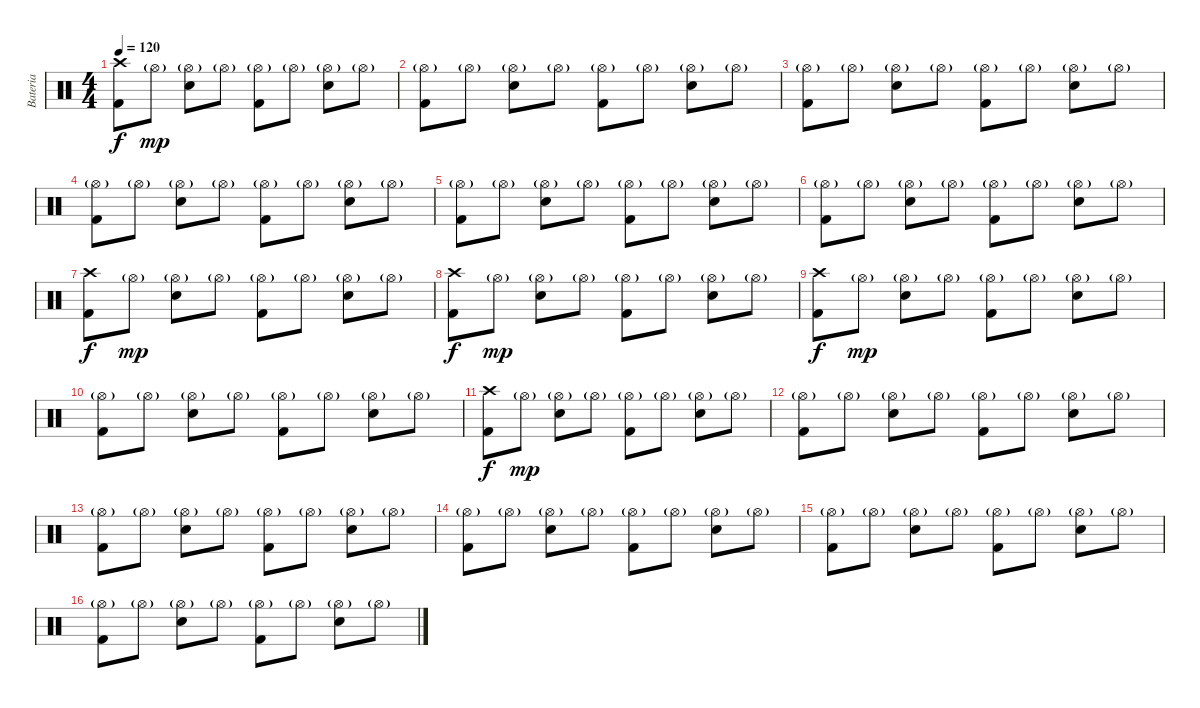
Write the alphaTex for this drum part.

\track ("Bateria" "Bateria") {instrument percussion}
\staff {score}
\articulation defaults
\ts (4 4)
\tempo 120
\clef neutral
\ks c
("Crash high (hit)" "Kick (hit) 2").8{dy f} "Hi-Hat (open)"{g}.8{dy mp} ("Hi-Hat (open)"{g} "Snare (hit) 2").8 "Hi-Hat (open)"{g}.8 ("Hi-Hat (open)"{g} "Kick (hit) 2").8 "Hi-Hat (open)"{g}.8 ("Hi-Hat (open)"{g} "Snare (hit) 2").8 "Hi-Hat (open)"{g}.8 |
("Hi-Hat (open)"{g} "Kick (hit) 2").8 "Hi-Hat (open)"{g}.8 ("Hi-Hat (open)"{g} "Snare (hit) 2").8 "Hi-Hat (open)"{g}.8 ("Hi-Hat (open)"{g} "Kick (hit) 2").8 "Hi-Hat (open)"{g}.8 ("Hi-Hat (open)"{g} "Snare (hit) 2").8 "Hi-Hat (open)"{g}.8 |
("Hi-Hat (open)"{g} "Kick (hit) 2").8 "Hi-Hat (open)"{g}.8 ("Hi-Hat (open)"{g} "Snare (hit) 2").8 "Hi-Hat (open)"{g}.8 ("Hi-Hat (open)"{g} "Kick (hit) 2").8 "Hi-Hat (open)"{g}.8 ("Hi-Hat (open)"{g} "Snare (hit) 2").8 "Hi-Hat (open)"{g}.8 |
("Hi-Hat (open)"{g} "Kick (hit) 2").8 "Hi-Hat (open)"{g}.8 ("Hi-Hat (open)"{g} "Snare (hit) 2").8 "Hi-Hat (open)"{g}.8 ("Hi-Hat (open)"{g} "Kick (hit) 2").8 "Hi-Hat (open)"{g}.8 ("Hi-Hat (open)"{g} "Snare (hit) 2").8 "Hi-Hat (open)"{g}.8 |
("Hi-Hat (open)"{g} "Kick (hit) 2").8 "Hi-Hat (open)"{g}.8 ("Hi-Hat (open)"{g} "Snare (hit) 2").8 "Hi-Hat (open)"{g}.8 ("Hi-Hat (open)"{g} "Kick (hit) 2").8 "Hi-Hat (open)"{g}.8 ("Hi-Hat (open)"{g} "Snare (hit) 2").8 "Hi-Hat (open)"{g}.8 |
("Hi-Hat (open)"{g} "Kick (hit) 2").8 "Hi-Hat (open)"{g}.8 ("Hi-Hat (open)"{g} "Snare (hit) 2").8 "Hi-Hat (open)"{g}.8 ("Hi-Hat (open)"{g} "Kick (hit) 2").8 "Hi-Hat (open)"{g}.8 ("Hi-Hat (open)"{g} "Snare (hit) 2").8 "Hi-Hat (open)"{g}.8 |
("Crash high (hit)" "Kick (hit) 2").8{dy f} "Hi-Hat (open)"{g}.8{dy mp} ("Hi-Hat (open)"{g} "Snare (hit) 2").8 "Hi-Hat (open)"{g}.8 ("Hi-Hat (open)"{g} "Kick (hit) 2").8 "Hi-Hat (open)"{g}.8 ("Hi-Hat (open)"{g} "Snare (hit) 2").8 "Hi-Hat (open)"{g}.8 |
("Crash high (hit)" "Kick (hit) 2").8{dy f} "Hi-Hat (open)"{g}.8{dy mp} ("Hi-Hat (open)"{g} "Snare (hit) 2").8 "Hi-Hat (open)"{g}.8 ("Hi-Hat (open)"{g} "Kick (hit) 2").8 "Hi-Hat (open)"{g}.8 ("Hi-Hat (open)"{g} "Snare (hit) 2").8 "Hi-Hat (open)"{g}.8 |
("Crash high (hit)" "Kick (hit) 2").8{dy f} "Hi-Hat (open)"{g}.8{dy mp} ("Hi-Hat (open)"{g} "Snare (hit) 2").8 "Hi-Hat (open)"{g}.8 ("Hi-Hat (open)"{g} "Kick (hit) 2").8 "Hi-Hat (open)"{g}.8 ("Hi-Hat (open)"{g} "Snare (hit) 2").8 "Hi-Hat (open)"{g}.8 |
("Hi-Hat (open)"{g} "Kick (hit) 2").8 "Hi-Hat (open)"{g}.8 ("Hi-Hat (open)"{g} "Snare (hit) 2").8 "Hi-Hat (open)"{g}.8 ("Hi-Hat (open)"{g} "Kick (hit) 2").8 "Hi-Hat (open)"{g}.8 ("Hi-Hat (open)"{g} "Snare (hit) 2").8 "Hi-Hat (open)"{g}.8 |
("Crash high (hit)" "Kick (hit) 2").8{dy f} "Hi-Hat (open)"{g}.8{dy mp} ("Hi-Hat (open)"{g} "Snare (hit) 2").8 "Hi-Hat (open)"{g}.8 ("Hi-Hat (open)"{g} "Kick (hit) 2").8 "Hi-Hat (open)"{g}.8 ("Hi-Hat (open)"{g} "Snare (hit) 2").8 "Hi-Hat (open)"{g}.8 |
("Hi-Hat (open)"{g} "Kick (hit) 2").8 "Hi-Hat (open)"{g}.8 ("Hi-Hat (open)"{g} "Snare (hit) 2").8 "Hi-Hat (open)"{g}.8 ("Hi-Hat (open)"{g} "Kick (hit) 2").8 "Hi-Hat (open)"{g}.8 ("Hi-Hat (open)"{g} "Snare (hit) 2").8 "Hi-Hat (open)"{g}.8 |
("Hi-Hat (open)"{g} "Kick (hit) 2").8 "Hi-Hat (open)"{g}.8 ("Hi-Hat (open)"{g} "Snare (hit) 2").8 "Hi-Hat (open)"{g}.8 ("Hi-Hat (open)"{g} "Kick (hit) 2").8 "Hi-Hat (open)"{g}.8 ("Hi-Hat (open)"{g} "Snare (hit) 2").8 "Hi-Hat (open)"{g}.8 |
("Hi-Hat (open)"{g} "Kick (hit) 2").8 "Hi-Hat (open)"{g}.8 ("Hi-Hat (open)"{g} "Snare (hit) 2").8 "Hi-Hat (open)"{g}.8 ("Hi-Hat (open)"{g} "Kick (hit) 2").8 "Hi-Hat (open)"{g}.8 ("Hi-Hat (open)"{g} "Snare (hit) 2").8 "Hi-Hat (open)"{g}.8 |
("Hi-Hat (open)"{g} "Kick (hit) 2").8 "Hi-Hat (open)"{g}.8 ("Hi-Hat (open)"{g} "Snare (hit) 2").8 "Hi-Hat (open)"{g}.8 ("Hi-Hat (open)"{g} "Kick (hit) 2").8 "Hi-Hat (open)"{g}.8 ("Hi-Hat (open)"{g} "Snare (hit) 2").8 "Hi-Hat (open)"{g}.8 |
("Hi-Hat (open)"{g} "Kick (hit) 2").8 "Hi-Hat (open)"{g}.8 ("Hi-Hat (open)"{g} "Snare (hit) 2").8 "Hi-Hat (open)"{g}.8 ("Hi-Hat (open)"{g} "Kick (hit) 2").8 "Hi-Hat (open)"{g}.8 ("Hi-Hat (open)"{g} "Snare (hit) 2").8 "Hi-Hat (open)"{g}.8
